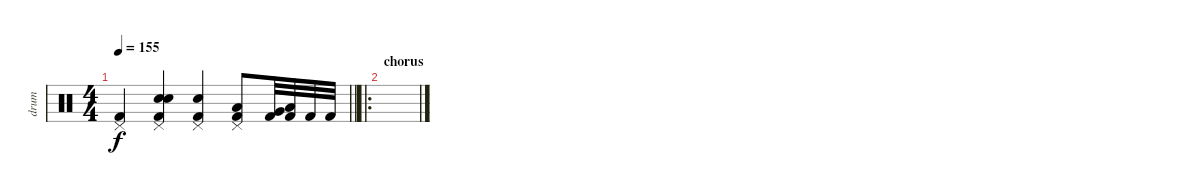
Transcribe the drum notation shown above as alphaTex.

\track ("drum" "drum") {instrument percussion}
\staff {score}
\articulation defaults
\ts (4 4)
\tempo 155
\clef neutral
\barLineRight lightlight
\ks c
("Pedal Hi-Hat (hit)" "Kick (hit) 2").4{dy f} ("Pedal Hi-Hat (hit)" "Electric Snare (hit)" "Snare (hit) 2" "Kick (hit) 2").4 ("Electric Snare (hit)" "Pedal Hi-Hat (hit)" "Kick (hit) 2").4 ("Pedal Hi-Hat (hit)" "Low Floor Tom (hit)" "Kick (hit) 2").8 ("Very Low Tom (hit)" "Kick (hit) 2").32 ("Low Tom (hit)" "Kick (hit) 2").32 "Kick (hit) 2".32 "Kick (hit) 2".32 |
\ro
\section ("" "chorus")
